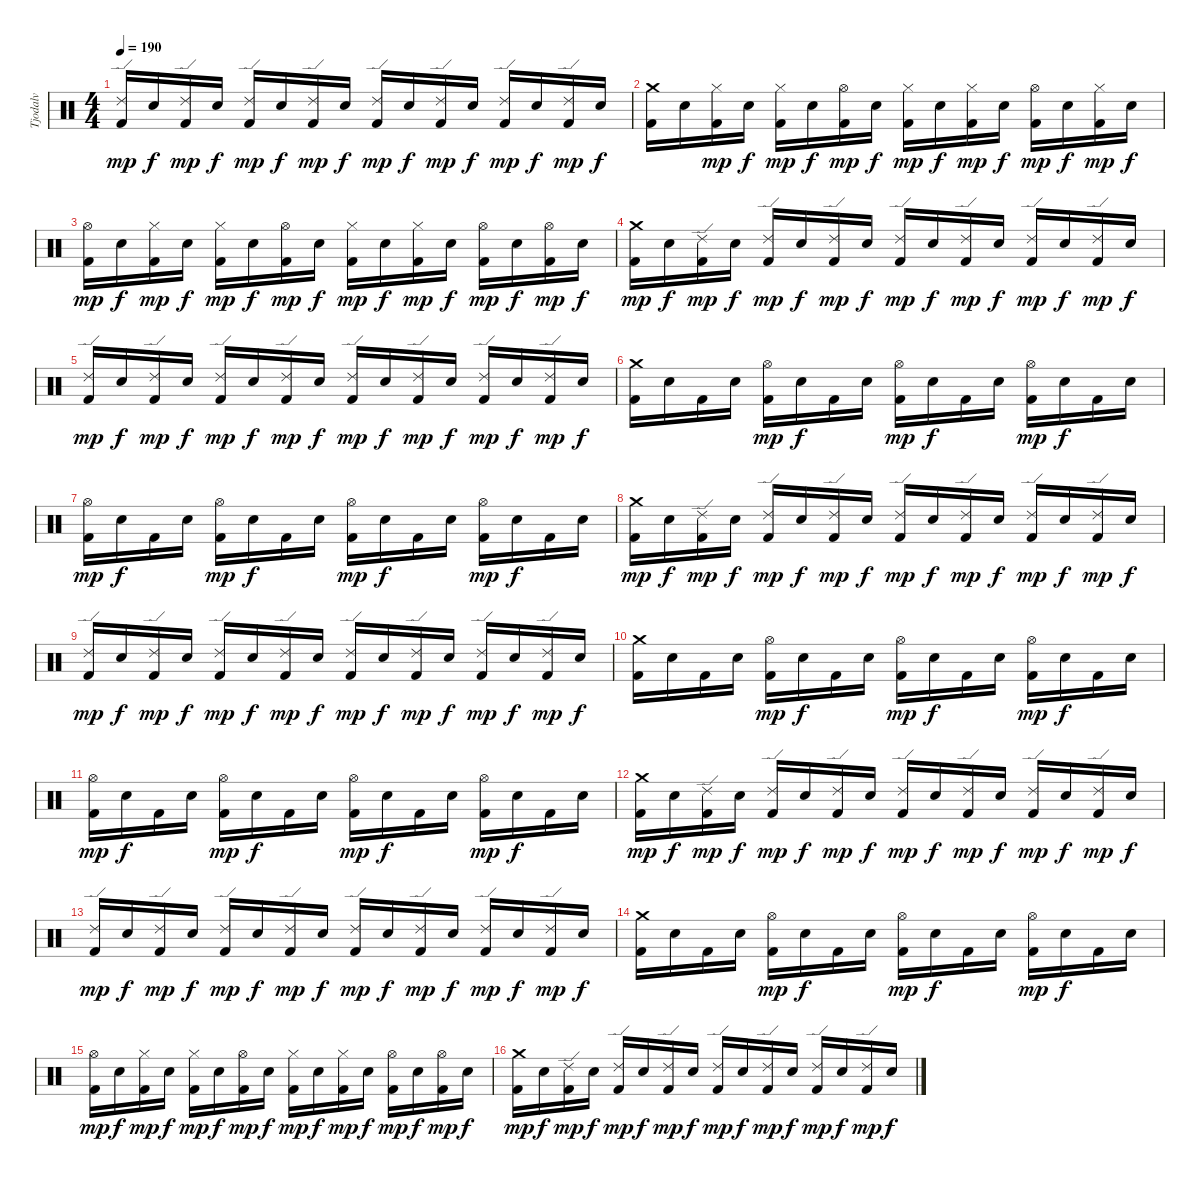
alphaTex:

\track ("Tjodalv" "Tjodalv") {instrument percussion}
\staff {score}
\articulation defaults
\ts (4 4)
\tempo 190
\clef neutral
\ks c
("Ride (edge) 2" "Kick (hit) 2").16{dy mp} "Electric Snare (hit)".16{dy f} ("Ride (edge) 2" "Kick (hit) 2").16{dy mp} "Electric Snare (hit)".16{dy f} ("Ride (edge) 2" "Kick (hit) 2").16{dy mp} "Electric Snare (hit)".16{dy f} ("Ride (edge) 2" "Kick (hit) 2").16{dy mp} "Electric Snare (hit)".16{dy f} ("Ride (edge) 2" "Kick (hit) 2").16{dy mp} "Electric Snare (hit)".16{dy f} ("Ride (edge) 2" "Kick (hit) 2").16{dy mp} "Electric Snare (hit)".16{dy f} ("Ride (edge) 2" "Kick (hit) 2").16{dy mp} "Electric Snare (hit)".16{dy f} ("Ride (edge) 2" "Kick (hit) 2").16{dy mp} "Electric Snare (hit)".16{dy f} |
("Crash medium (hit)" "Kick (hit) 2").16 "Electric Snare (hit)".16 ("Hi-Hat (closed)" "Kick (hit) 2").16{dy mp} "Electric Snare (hit)".16{dy f} ("Hi-Hat (closed)" "Kick (hit) 2").16{dy mp} "Electric Snare (hit)".16{dy f} ("Hi-Hat (open)" "Kick (hit) 2").16{dy mp} "Electric Snare (hit)".16{dy f} ("Hi-Hat (closed)" "Kick (hit) 2").16{dy mp} "Electric Snare (hit)".16{dy f} ("Hi-Hat (closed)" "Kick (hit) 2").16{dy mp} "Electric Snare (hit)".16{dy f} ("Hi-Hat (open)" "Kick (hit) 2").16{dy mp} "Electric Snare (hit)".16{dy f} ("Hi-Hat (closed)" "Kick (hit) 2").16{dy mp} "Electric Snare (hit)".16{dy f} |
("Hi-Hat (open)" "Kick (hit) 2").16{dy mp} "Electric Snare (hit)".16{dy f} ("Hi-Hat (closed)" "Kick (hit) 2").16{dy mp} "Electric Snare (hit)".16{dy f} ("Hi-Hat (closed)" "Kick (hit) 2").16{dy mp} "Electric Snare (hit)".16{dy f} ("Hi-Hat (open)" "Kick (hit) 2").16{dy mp} "Electric Snare (hit)".16{dy f} ("Hi-Hat (closed)" "Kick (hit) 2").16{dy mp} "Electric Snare (hit)".16{dy f} ("Hi-Hat (closed)" "Kick (hit) 2").16{dy mp} "Electric Snare (hit)".16{dy f} ("Hi-Hat (open)" "Kick (hit) 2").16{dy mp} "Electric Snare (hit)".16{dy f} ("Hi-Hat (open)" "Kick (hit) 2").16{dy mp} "Electric Snare (hit)".16{dy f} |
("Crash medium (hit)" "Kick (hit) 2").16{dy mp} "Electric Snare (hit)".16{dy f} ("Ride (edge) 2" "Kick (hit) 2").16{dy mp} "Electric Snare (hit)".16{dy f} ("Ride (edge) 2" "Kick (hit) 2").16{dy mp} "Electric Snare (hit)".16{dy f} ("Ride (edge) 2" "Kick (hit) 2").16{dy mp} "Electric Snare (hit)".16{dy f} ("Ride (edge) 2" "Kick (hit) 2").16{dy mp} "Electric Snare (hit)".16{dy f} ("Ride (edge) 2" "Kick (hit) 2").16{dy mp} "Electric Snare (hit)".16{dy f} ("Ride (edge) 2" "Kick (hit) 2").16{dy mp} "Electric Snare (hit)".16{dy f} ("Ride (edge) 2" "Kick (hit) 2").16{dy mp} "Electric Snare (hit)".16{dy f} |
("Ride (edge) 2" "Kick (hit) 2").16{dy mp} "Electric Snare (hit)".16{dy f} ("Ride (edge) 2" "Kick (hit) 2").16{dy mp} "Electric Snare (hit)".16{dy f} ("Ride (edge) 2" "Kick (hit) 2").16{dy mp} "Electric Snare (hit)".16{dy f} ("Ride (edge) 2" "Kick (hit) 2").16{dy mp} "Electric Snare (hit)".16{dy f} ("Ride (edge) 2" "Kick (hit) 2").16{dy mp} "Electric Snare (hit)".16{dy f} ("Ride (edge) 2" "Kick (hit) 2").16{dy mp} "Electric Snare (hit)".16{dy f} ("Ride (edge) 2" "Kick (hit) 2").16{dy mp} "Electric Snare (hit)".16{dy f} ("Ride (edge) 2" "Kick (hit) 2").16{dy mp} "Electric Snare (hit)".16{dy f} |
("Crash medium (hit)" "Kick (hit) 2").16 "Electric Snare (hit)".16 "Kick (hit) 2".16 "Electric Snare (hit)".16 ("Hi-Hat (open)" "Kick (hit) 2").16{dy mp} "Electric Snare (hit)".16{dy f} "Kick (hit) 2".16 "Electric Snare (hit)".16 ("Hi-Hat (open)" "Kick (hit) 2").16{dy mp} "Electric Snare (hit)".16{dy f} "Kick (hit) 2".16 "Electric Snare (hit)".16 ("Hi-Hat (open)" "Kick (hit) 2").16{dy mp} "Electric Snare (hit)".16{dy f} "Kick (hit) 2".16 "Electric Snare (hit)".16 |
("Hi-Hat (open)" "Kick (hit) 2").16{dy mp} "Electric Snare (hit)".16{dy f} "Kick (hit) 2".16 "Electric Snare (hit)".16 ("Hi-Hat (open)" "Kick (hit) 2").16{dy mp} "Electric Snare (hit)".16{dy f} "Kick (hit) 2".16 "Electric Snare (hit)".16 ("Hi-Hat (open)" "Kick (hit) 2").16{dy mp} "Electric Snare (hit)".16{dy f} "Kick (hit) 2".16 "Electric Snare (hit)".16 ("Hi-Hat (open)" "Kick (hit) 2").16{dy mp} "Electric Snare (hit)".16{dy f} "Kick (hit) 2".16 "Electric Snare (hit)".16 |
("Crash medium (hit)" "Kick (hit) 2").16{dy mp} "Electric Snare (hit)".16{dy f} ("Ride (edge) 2" "Kick (hit) 2").16{dy mp} "Electric Snare (hit)".16{dy f} ("Ride (edge) 2" "Kick (hit) 2").16{dy mp} "Electric Snare (hit)".16{dy f} ("Ride (edge) 2" "Kick (hit) 2").16{dy mp} "Electric Snare (hit)".16{dy f} ("Ride (edge) 2" "Kick (hit) 2").16{dy mp} "Electric Snare (hit)".16{dy f} ("Ride (edge) 2" "Kick (hit) 2").16{dy mp} "Electric Snare (hit)".16{dy f} ("Ride (edge) 2" "Kick (hit) 2").16{dy mp} "Electric Snare (hit)".16{dy f} ("Ride (edge) 2" "Kick (hit) 2").16{dy mp} "Electric Snare (hit)".16{dy f} |
("Ride (edge) 2" "Kick (hit) 2").16{dy mp} "Electric Snare (hit)".16{dy f} ("Ride (edge) 2" "Kick (hit) 2").16{dy mp} "Electric Snare (hit)".16{dy f} ("Ride (edge) 2" "Kick (hit) 2").16{dy mp} "Electric Snare (hit)".16{dy f} ("Ride (edge) 2" "Kick (hit) 2").16{dy mp} "Electric Snare (hit)".16{dy f} ("Ride (edge) 2" "Kick (hit) 2").16{dy mp} "Electric Snare (hit)".16{dy f} ("Ride (edge) 2" "Kick (hit) 2").16{dy mp} "Electric Snare (hit)".16{dy f} ("Ride (edge) 2" "Kick (hit) 2").16{dy mp} "Electric Snare (hit)".16{dy f} ("Ride (edge) 2" "Kick (hit) 2").16{dy mp} "Electric Snare (hit)".16{dy f} |
("Crash medium (hit)" "Kick (hit) 2").16 "Electric Snare (hit)".16 "Kick (hit) 2".16 "Electric Snare (hit)".16 ("Hi-Hat (open)" "Kick (hit) 2").16{dy mp} "Electric Snare (hit)".16{dy f} "Kick (hit) 2".16 "Electric Snare (hit)".16 ("Hi-Hat (open)" "Kick (hit) 2").16{dy mp} "Electric Snare (hit)".16{dy f} "Kick (hit) 2".16 "Electric Snare (hit)".16 ("Hi-Hat (open)" "Kick (hit) 2").16{dy mp} "Electric Snare (hit)".16{dy f} "Kick (hit) 2".16 "Electric Snare (hit)".16 |
("Hi-Hat (open)" "Kick (hit) 2").16{dy mp} "Electric Snare (hit)".16{dy f} "Kick (hit) 2".16 "Electric Snare (hit)".16 ("Hi-Hat (open)" "Kick (hit) 2").16{dy mp} "Electric Snare (hit)".16{dy f} "Kick (hit) 2".16 "Electric Snare (hit)".16 ("Hi-Hat (open)" "Kick (hit) 2").16{dy mp} "Electric Snare (hit)".16{dy f} "Kick (hit) 2".16 "Electric Snare (hit)".16 ("Hi-Hat (open)" "Kick (hit) 2").16{dy mp} "Electric Snare (hit)".16{dy f} "Kick (hit) 2".16 "Electric Snare (hit)".16 |
("Crash medium (hit)" "Kick (hit) 2").16{dy mp} "Electric Snare (hit)".16{dy f} ("Ride (edge) 2" "Kick (hit) 2").16{dy mp} "Electric Snare (hit)".16{dy f} ("Ride (edge) 2" "Kick (hit) 2").16{dy mp} "Electric Snare (hit)".16{dy f} ("Ride (edge) 2" "Kick (hit) 2").16{dy mp} "Electric Snare (hit)".16{dy f} ("Ride (edge) 2" "Kick (hit) 2").16{dy mp} "Electric Snare (hit)".16{dy f} ("Ride (edge) 2" "Kick (hit) 2").16{dy mp} "Electric Snare (hit)".16{dy f} ("Ride (edge) 2" "Kick (hit) 2").16{dy mp} "Electric Snare (hit)".16{dy f} ("Ride (edge) 2" "Kick (hit) 2").16{dy mp} "Electric Snare (hit)".16{dy f} |
("Ride (edge) 2" "Kick (hit) 2").16{dy mp} "Electric Snare (hit)".16{dy f} ("Ride (edge) 2" "Kick (hit) 2").16{dy mp} "Electric Snare (hit)".16{dy f} ("Ride (edge) 2" "Kick (hit) 2").16{dy mp} "Electric Snare (hit)".16{dy f} ("Ride (edge) 2" "Kick (hit) 2").16{dy mp} "Electric Snare (hit)".16{dy f} ("Ride (edge) 2" "Kick (hit) 2").16{dy mp} "Electric Snare (hit)".16{dy f} ("Ride (edge) 2" "Kick (hit) 2").16{dy mp} "Electric Snare (hit)".16{dy f} ("Ride (edge) 2" "Kick (hit) 2").16{dy mp} "Electric Snare (hit)".16{dy f} ("Ride (edge) 2" "Kick (hit) 2").16{dy mp} "Electric Snare (hit)".16{dy f} |
("Crash medium (hit)" "Kick (hit) 2").16 "Electric Snare (hit)".16 "Kick (hit) 2".16 "Electric Snare (hit)".16 ("Hi-Hat (open)" "Kick (hit) 2").16{dy mp} "Electric Snare (hit)".16{dy f} "Kick (hit) 2".16 "Electric Snare (hit)".16 ("Hi-Hat (open)" "Kick (hit) 2").16{dy mp} "Electric Snare (hit)".16{dy f} "Kick (hit) 2".16 "Electric Snare (hit)".16 ("Hi-Hat (open)" "Kick (hit) 2").16{dy mp} "Electric Snare (hit)".16{dy f} "Kick (hit) 2".16 "Electric Snare (hit)".16 |
("Hi-Hat (open)" "Kick (hit) 2").16{dy mp} "Electric Snare (hit)".16{dy f} ("Hi-Hat (closed)" "Kick (hit) 2").16{dy mp} "Electric Snare (hit)".16{dy f} ("Hi-Hat (closed)" "Kick (hit) 2").16{dy mp} "Electric Snare (hit)".16{dy f} ("Hi-Hat (open)" "Kick (hit) 2").16{dy mp} "Electric Snare (hit)".16{dy f} ("Hi-Hat (closed)" "Kick (hit) 2").16{dy mp} "Electric Snare (hit)".16{dy f} ("Hi-Hat (closed)" "Kick (hit) 2").16{dy mp} "Electric Snare (hit)".16{dy f} ("Hi-Hat (open)" "Kick (hit) 2").16{dy mp} "Electric Snare (hit)".16{dy f} ("Hi-Hat (open)" "Kick (hit) 2").16{dy mp} "Electric Snare (hit)".16{dy f} |
("Crash medium (hit)" "Kick (hit) 2").16{dy mp} "Electric Snare (hit)".16{dy f} ("Ride (edge) 2" "Kick (hit) 2").16{dy mp} "Electric Snare (hit)".16{dy f} ("Ride (edge) 2" "Kick (hit) 2").16{dy mp} "Electric Snare (hit)".16{dy f} ("Ride (edge) 2" "Kick (hit) 2").16{dy mp} "Electric Snare (hit)".16{dy f} ("Ride (edge) 2" "Kick (hit) 2").16{dy mp} "Electric Snare (hit)".16{dy f} ("Ride (edge) 2" "Kick (hit) 2").16{dy mp} "Electric Snare (hit)".16{dy f} ("Ride (edge) 2" "Kick (hit) 2").16{dy mp} "Electric Snare (hit)".16{dy f} ("Ride (edge) 2" "Kick (hit) 2").16{dy mp} "Electric Snare (hit)".16{dy f}
